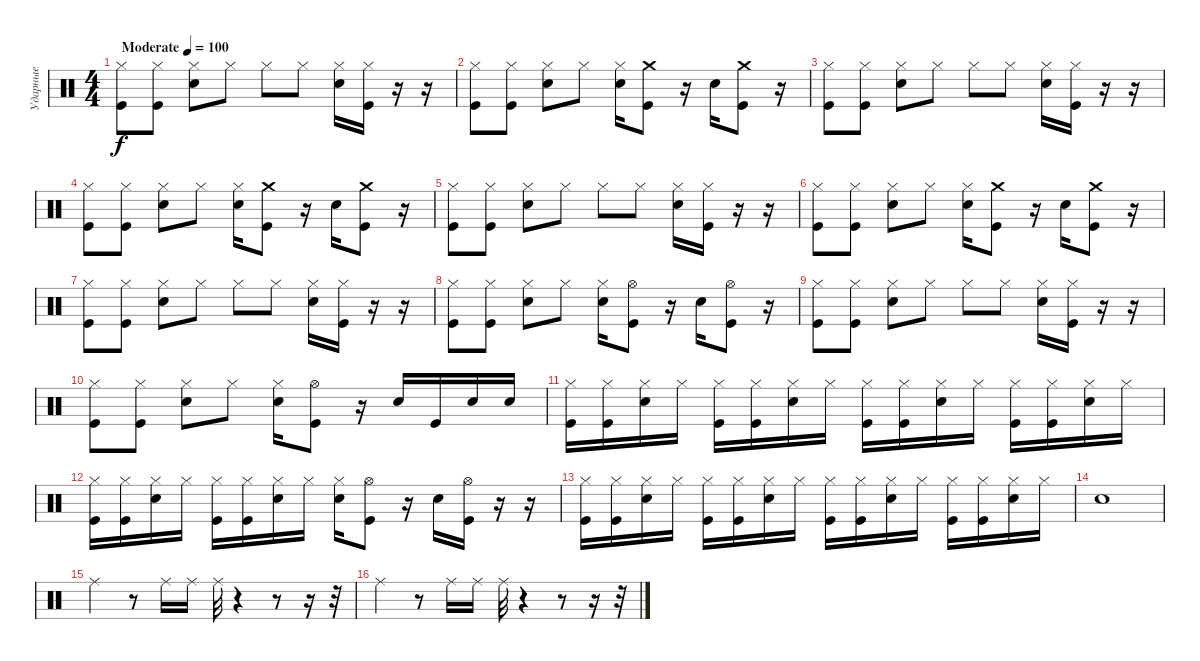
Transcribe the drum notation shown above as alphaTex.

\track ("Ударные" "Ударные") {instrument percussion}
\staff {score}
\articulation defaults
\ts (4 4)
\tempo (100 "Moderate")
\clef neutral
\ks c
("Kick (hit)" "Hi-Hat (closed)").8{dy f} ("Kick (hit)" "Hi-Hat (closed)").8 ("Snare (hit) 2" "Hi-Hat (closed)").8 "Hi-Hat (closed)".8 "Hi-Hat (closed)".8 "Hi-Hat (closed)".8 ("Snare (hit) 2" "Hi-Hat (closed)").16 ("Kick (hit)" "Hi-Hat (closed)").16 r.16 r.16 |
("Kick (hit)" "Hi-Hat (closed)").8 ("Kick (hit)" "Hi-Hat (closed)").8 ("Snare (hit) 2" "Hi-Hat (closed)").8 "Hi-Hat (closed)".8 ("Snare (hit) 2" "Hi-Hat (closed)").16 ("Kick (hit)" "Crash medium (hit)").8 r.16 "Snare (hit) 2".16 ("Kick (hit)" "Crash medium (hit)").8 r.16 |
("Kick (hit)" "Hi-Hat (closed)").8 ("Kick (hit)" "Hi-Hat (closed)").8 ("Snare (hit) 2" "Hi-Hat (closed)").8 "Hi-Hat (closed)".8 "Hi-Hat (closed)".8 "Hi-Hat (closed)".8 ("Snare (hit) 2" "Hi-Hat (closed)").16 ("Kick (hit)" "Hi-Hat (closed)").16 r.16 r.16 |
("Kick (hit)" "Hi-Hat (closed)").8 ("Kick (hit)" "Hi-Hat (closed)").8 ("Snare (hit) 2" "Hi-Hat (closed)").8 "Hi-Hat (closed)".8 ("Snare (hit) 2" "Hi-Hat (closed)").16 ("Kick (hit)" "Crash medium (hit)").8 r.16 "Snare (hit) 2".16 ("Kick (hit)" "Crash medium (hit)").8 r.16 |
("Kick (hit)" "Hi-Hat (closed)").8 ("Kick (hit)" "Hi-Hat (closed)").8 ("Snare (hit) 2" "Hi-Hat (closed)").8 "Hi-Hat (closed)".8 "Hi-Hat (closed)".8 "Hi-Hat (closed)".8 ("Snare (hit) 2" "Hi-Hat (closed)").16 ("Kick (hit)" "Hi-Hat (closed)").16 r.16 r.16 |
("Kick (hit)" "Hi-Hat (closed)").8 ("Kick (hit)" "Hi-Hat (closed)").8 ("Snare (hit) 2" "Hi-Hat (closed)").8 "Hi-Hat (closed)".8 ("Snare (hit) 2" "Hi-Hat (closed)").16 ("Kick (hit)" "Crash medium (hit)").8 r.16 "Snare (hit) 2".16 ("Kick (hit)" "Crash medium (hit)").8 r.16 |
("Kick (hit)" "Hi-Hat (closed)").8 ("Kick (hit)" "Hi-Hat (closed)").8 ("Snare (hit) 2" "Hi-Hat (closed)").8 "Hi-Hat (closed)".8 "Hi-Hat (closed)".8 "Hi-Hat (closed)".8 ("Snare (hit) 2" "Hi-Hat (closed)").16 ("Kick (hit)" "Hi-Hat (closed)").16 r.16 r.16 |
("Kick (hit)" "Hi-Hat (closed)").8 ("Kick (hit)" "Hi-Hat (closed)").8 ("Snare (hit) 2" "Hi-Hat (closed)").8 "Hi-Hat (closed)".8 ("Snare (hit) 2" "Hi-Hat (closed)").16 ("Kick (hit)" "Hi-Hat (open)").8 r.16 "Snare (hit) 2".16 ("Kick (hit)" "Hi-Hat (open)").8 r.16 |
("Kick (hit)" "Hi-Hat (closed)").8 ("Kick (hit)" "Hi-Hat (closed)").8 ("Snare (hit) 2" "Hi-Hat (closed)").8 "Hi-Hat (closed)".8 "Hi-Hat (closed)".8 "Hi-Hat (closed)".8 ("Snare (hit) 2" "Hi-Hat (closed)").16 ("Kick (hit)" "Hi-Hat (closed)").16 r.16 r.16 |
("Kick (hit)" "Hi-Hat (closed)").8 ("Kick (hit)" "Hi-Hat (closed)").8 ("Snare (hit) 2" "Hi-Hat (closed)").8 "Hi-Hat (closed)".8 ("Snare (hit) 2" "Hi-Hat (closed)").16 ("Kick (hit)" "Hi-Hat (open)").8 r.16 "Snare (hit) 2".16 "Kick (hit)".16 "Snare (hit) 2".16 "Snare (hit) 2".16 |
("Kick (hit)" "Hi-Hat (closed)").16 ("Kick (hit)" "Hi-Hat (closed)").16 ("Snare (hit) 2" "Hi-Hat (closed)").16 "Hi-Hat (closed)".16 ("Kick (hit)" "Hi-Hat (closed)").16 ("Kick (hit)" "Hi-Hat (closed)").16 ("Snare (hit) 2" "Hi-Hat (closed)").16 "Hi-Hat (closed)".16 ("Kick (hit)" "Hi-Hat (closed)").16 ("Kick (hit)" "Hi-Hat (closed)").16 ("Snare (hit) 2" "Hi-Hat (closed)").16 "Hi-Hat (closed)".16 ("Kick (hit)" "Hi-Hat (closed)").16 ("Kick (hit)" "Hi-Hat (closed)").16 ("Snare (hit) 2" "Hi-Hat (closed)").16 "Hi-Hat (closed)".16 |
("Kick (hit)" "Hi-Hat (closed)").16 ("Kick (hit)" "Hi-Hat (closed)").16 ("Snare (hit) 2" "Hi-Hat (closed)").16 "Hi-Hat (closed)".16 ("Kick (hit)" "Hi-Hat (closed)").16 ("Kick (hit)" "Hi-Hat (closed)").16 ("Snare (hit) 2" "Hi-Hat (closed)").16 "Hi-Hat (closed)".16 ("Snare (hit) 2" "Hi-Hat (closed)").16 ("Kick (hit)" "Hi-Hat (open)").8 r.16 "Snare (hit) 2".16 ("Kick (hit)" "Hi-Hat (open)").16 r.16 r.16 |
("Kick (hit)" "Hi-Hat (closed)").16 ("Kick (hit)" "Hi-Hat (closed)").16 ("Snare (hit) 2" "Hi-Hat (closed)").16 "Hi-Hat (closed)".16 ("Kick (hit)" "Hi-Hat (closed)").16 ("Kick (hit)" "Hi-Hat (closed)").16 ("Snare (hit) 2" "Hi-Hat (closed)").16 "Hi-Hat (closed)".16 ("Kick (hit)" "Hi-Hat (closed)").16 ("Kick (hit)" "Hi-Hat (closed)").16 ("Snare (hit) 2" "Hi-Hat (closed)").16 "Hi-Hat (closed)".16 ("Kick (hit)" "Hi-Hat (closed)").16 ("Kick (hit)" "Hi-Hat (closed)").16 ("Snare (hit) 2" "Hi-Hat (closed)").16 "Hi-Hat (closed)".16 |
"Snare (hit) 2".1 |
"Ride (middle)".4 r.8 "Ride (middle)".16 "Ride (middle)".16 "Ride (middle)".32 r.4 r.8 r.16 r.32 |
"Ride (middle)".4 r.8 "Ride (middle)".16 "Ride (middle)".16 "Ride (middle)".32 r.4 r.8 r.16 r.32
